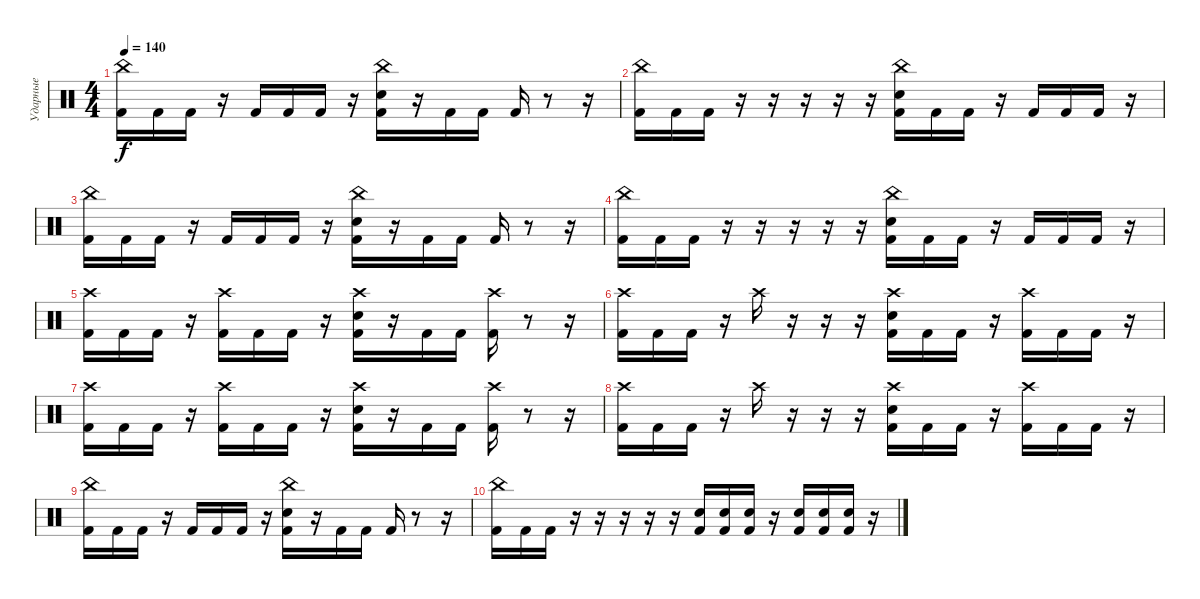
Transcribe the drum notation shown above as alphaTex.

\track ("Ударные" "Ударные") {instrument percussion}
\staff {score}
\articulation defaults
\ts (4 4)
\tempo 140
\clef neutral
\ks c
("China (hit)" "Kick (hit) 2").16{dy f} "Kick (hit) 2".16 "Kick (hit) 2".16 r.16 "Kick (hit) 2".16 "Kick (hit) 2".16 "Kick (hit) 2".16 r.16 ("China (hit)" "Electric Snare (hit)" "Kick (hit) 2").16 r.16 "Kick (hit) 2".16 "Kick (hit) 2".16 "Kick (hit) 2".16 r.8 r.16 |
("China (hit)" "Kick (hit) 2").16 "Kick (hit) 2".16 "Kick (hit) 2".16 r.16 r.16 r.16 r.16 r.16 ("China (hit)" "Electric Snare (hit)" "Kick (hit) 2").16 "Kick (hit) 2".16 "Kick (hit) 2".16 r.16 "Kick (hit) 2".16 "Kick (hit) 2".16 "Kick (hit) 2".16 r.16 |
("China (hit)" "Kick (hit) 2").16 "Kick (hit) 2".16 "Kick (hit) 2".16 r.16 "Kick (hit) 2".16 "Kick (hit) 2".16 "Kick (hit) 2".16 r.16 ("China (hit)" "Electric Snare (hit)" "Kick (hit) 2").16 r.16 "Kick (hit) 2".16 "Kick (hit) 2".16 "Kick (hit) 2".16 r.8 r.16 |
("China (hit)" "Kick (hit) 2").16 "Kick (hit) 2".16 "Kick (hit) 2".16 r.16 r.16 r.16 r.16 r.16 ("China (hit)" "Electric Snare (hit)" "Kick (hit) 2").16 "Kick (hit) 2".16 "Kick (hit) 2".16 r.16 "Kick (hit) 2".16 "Kick (hit) 2".16 "Kick (hit) 2".16 r.16 |
("Crash high (hit)" "Kick (hit) 2").16 "Kick (hit) 2".16 "Kick (hit) 2".16 r.16 ("Crash high (hit)" "Kick (hit) 2").16 "Kick (hit) 2".16 "Kick (hit) 2".16 r.16 ("Crash high (hit)" "Electric Snare (hit)" "Kick (hit) 2").16 r.16 "Kick (hit) 2".16 "Kick (hit) 2".16 ("Crash high (hit)" "Kick (hit) 2").16 r.8 r.16 |
("Crash high (hit)" "Kick (hit) 2").16 "Kick (hit) 2".16 "Kick (hit) 2".16 r.16 "Crash high (hit)".16 r.16 r.16 r.16 ("Crash high (hit)" "Electric Snare (hit)" "Kick (hit) 2").16 "Kick (hit) 2".16 "Kick (hit) 2".16 r.16 ("Crash high (hit)" "Kick (hit) 2").16 "Kick (hit) 2".16 "Kick (hit) 2".16 r.16 |
("Crash high (hit)" "Kick (hit) 2").16 "Kick (hit) 2".16 "Kick (hit) 2".16 r.16 ("Crash high (hit)" "Kick (hit) 2").16 "Kick (hit) 2".16 "Kick (hit) 2".16 r.16 ("Crash high (hit)" "Electric Snare (hit)" "Kick (hit) 2").16 r.16 "Kick (hit) 2".16 "Kick (hit) 2".16 ("Crash high (hit)" "Kick (hit) 2").16 r.8 r.16 |
("Crash high (hit)" "Kick (hit) 2").16 "Kick (hit) 2".16 "Kick (hit) 2".16 r.16 "Crash high (hit)".16 r.16 r.16 r.16 ("Crash high (hit)" "Electric Snare (hit)" "Kick (hit) 2").16 "Kick (hit) 2".16 "Kick (hit) 2".16 r.16 ("Crash high (hit)" "Kick (hit) 2").16 "Kick (hit) 2".16 "Kick (hit) 2".16 r.16 |
("China (hit)" "Kick (hit) 2").16 "Kick (hit) 2".16 "Kick (hit) 2".16 r.16 "Kick (hit) 2".16 "Kick (hit) 2".16 "Kick (hit) 2".16 r.16 ("China (hit)" "Electric Snare (hit)" "Kick (hit) 2").16 r.16 "Kick (hit) 2".16 "Kick (hit) 2".16 "Kick (hit) 2".16 r.8 r.16 |
("China (hit)" "Kick (hit) 2").16 "Kick (hit) 2".16 "Kick (hit) 2".16 r.16 r.16 r.16 r.16 r.16 ("Electric Snare (hit)" "Kick (hit) 2").16 ("Electric Snare (hit)" "Kick (hit) 2").16 ("Electric Snare (hit)" "Kick (hit) 2").16 r.16 ("Electric Snare (hit)" "Kick (hit) 2").16 ("Electric Snare (hit)" "Kick (hit) 2").16 ("Electric Snare (hit)" "Kick (hit) 2").16 r.16
